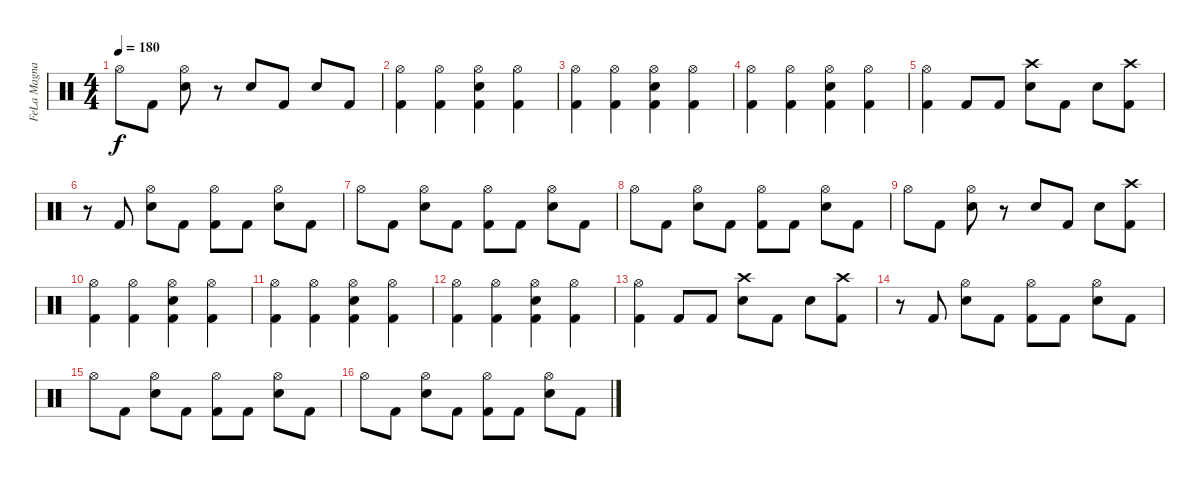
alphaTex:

\track ("FeLa Magnani" "FeLa Magna") {instrument percussion}
\staff {score}
\articulation defaults
\ts (4 4)
\tempo 180
\clef neutral
\ks c "Hi-Hat (open)".8{dy f} "Kick (hit) 2".8
("Hi-Hat (open)" "Electric Snare (hit)").8 r.8 "Electric Snare (hit)".8 "Kick (hit) 2".8 "Electric Snare (hit)".8 "Kick (hit) 2".8 |
("Hi-Hat (open)" "Kick (hit) 2").4 ("Hi-Hat (open)" "Kick (hit) 2").4 ("Hi-Hat (open)" "Electric Snare (hit)" "Kick (hit) 2").4 ("Hi-Hat (open)" "Kick (hit) 2").4 |
("Hi-Hat (open)" "Kick (hit) 2").4 ("Hi-Hat (open)" "Kick (hit) 2").4 ("Hi-Hat (open)" "Electric Snare (hit)" "Kick (hit) 2").4 ("Hi-Hat (open)" "Kick (hit) 2").4 |
("Hi-Hat (open)" "Kick (hit) 2").4 ("Hi-Hat (open)" "Kick (hit) 2").4 ("Hi-Hat (open)" "Electric Snare (hit)" "Kick (hit) 2").4 ("Hi-Hat (open)" "Kick (hit) 2").4 |
("Hi-Hat (open)" "Kick (hit) 2").4 "Kick (hit) 2".8 "Kick (hit) 2".8 ("Crash high (hit)" "Electric Snare (hit)").8 "Kick (hit) 2".8 "Electric Snare (hit)".8 ("Crash high (hit)" "Kick (hit) 2").8 |
r.8 "Kick (hit) 2".8 ("Hi-Hat (open)" "Electric Snare (hit)").8 "Kick (hit) 2".8 ("Hi-Hat (open)" "Kick (hit) 2").8 "Kick (hit) 2".8 ("Hi-Hat (open)" "Electric Snare (hit)").8 "Kick (hit) 2".8 |
"Hi-Hat (open)".8 "Kick (hit) 2".8 ("Hi-Hat (open)" "Electric Snare (hit)").8 "Kick (hit) 2".8 ("Hi-Hat (open)" "Kick (hit) 2").8 "Kick (hit) 2".8 ("Hi-Hat (open)" "Electric Snare (hit)").8 "Kick (hit) 2".8 |
"Hi-Hat (open)".8 "Kick (hit) 2".8 ("Hi-Hat (open)" "Electric Snare (hit)").8 "Kick (hit) 2".8 ("Hi-Hat (open)" "Kick (hit) 2").8 "Kick (hit) 2".8 ("Hi-Hat (open)" "Electric Snare (hit)").8 "Kick (hit) 2".8 |
"Hi-Hat (open)".8 "Kick (hit) 2".8 ("Hi-Hat (open)" "Electric Snare (hit)").8 r.8 "Electric Snare (hit)".8 "Kick (hit) 2".8 "Electric Snare (hit)".8 ("Crash high (hit)" "Kick (hit) 2").8 |
("Hi-Hat (open)" "Kick (hit) 2").4 ("Hi-Hat (open)" "Kick (hit) 2").4 ("Hi-Hat (open)" "Electric Snare (hit)" "Kick (hit) 2").4 ("Hi-Hat (open)" "Kick (hit) 2").4 |
("Hi-Hat (open)" "Kick (hit) 2").4 ("Hi-Hat (open)" "Kick (hit) 2").4 ("Hi-Hat (open)" "Electric Snare (hit)" "Kick (hit) 2").4 ("Hi-Hat (open)" "Kick (hit) 2").4 |
("Hi-Hat (open)" "Kick (hit) 2").4 ("Hi-Hat (open)" "Kick (hit) 2").4 ("Hi-Hat (open)" "Electric Snare (hit)" "Kick (hit) 2").4 ("Hi-Hat (open)" "Kick (hit) 2").4 |
("Hi-Hat (open)" "Kick (hit) 2").4 "Kick (hit) 2".8 "Kick (hit) 2".8 ("Crash high (hit)" "Electric Snare (hit)").8 "Kick (hit) 2".8 "Electric Snare (hit)".8 ("Crash high (hit)" "Kick (hit) 2").8 |
r.8 "Kick (hit) 2".8 ("Hi-Hat (open)" "Electric Snare (hit)").8 "Kick (hit) 2".8 ("Hi-Hat (open)" "Kick (hit) 2").8 "Kick (hit) 2".8 ("Hi-Hat (open)" "Electric Snare (hit)").8 "Kick (hit) 2".8 |
"Hi-Hat (open)".8 "Kick (hit) 2".8 ("Hi-Hat (open)" "Electric Snare (hit)").8 "Kick (hit) 2".8 ("Hi-Hat (open)" "Kick (hit) 2").8 "Kick (hit) 2".8 ("Hi-Hat (open)" "Electric Snare (hit)").8 "Kick (hit) 2".8 |
"Hi-Hat (open)".8 "Kick (hit) 2".8 ("Hi-Hat (open)" "Electric Snare (hit)").8 "Kick (hit) 2".8 ("Hi-Hat (open)" "Kick (hit) 2").8 "Kick (hit) 2".8 ("Hi-Hat (open)" "Electric Snare (hit)").8 "Kick (hit) 2".8
